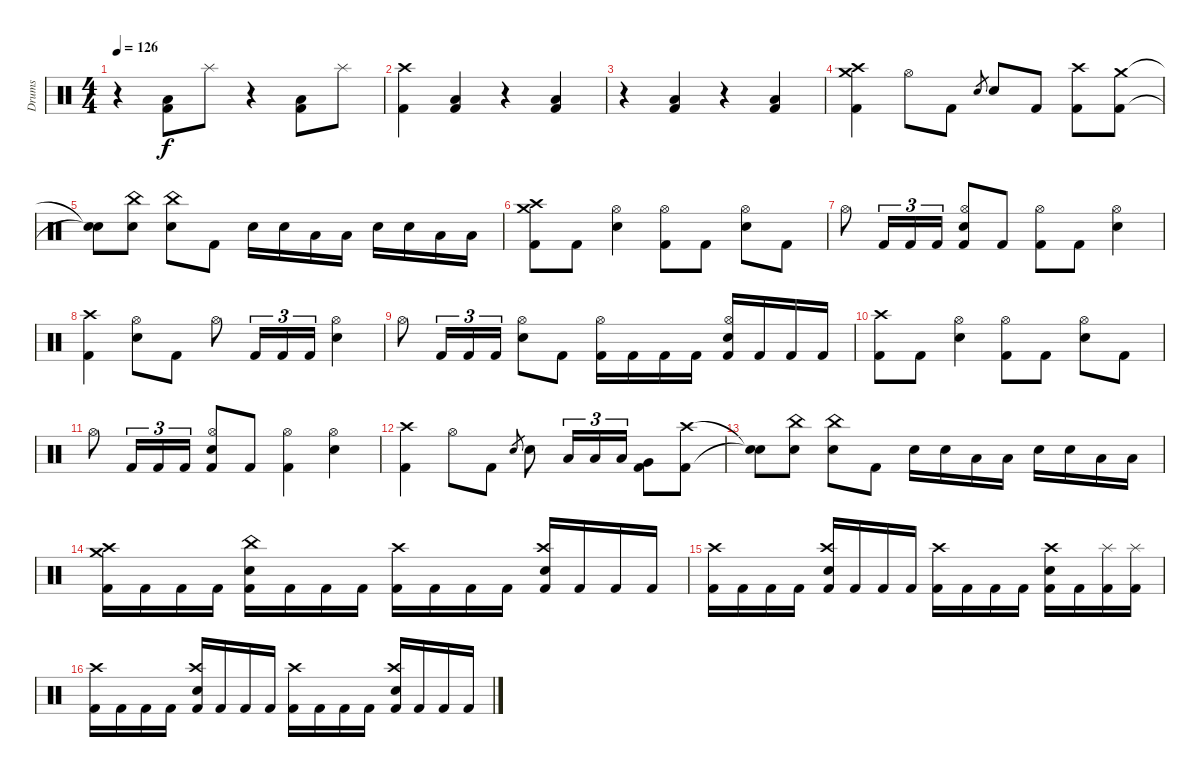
\track ("Drums" "Drums") {instrument percussion}
\staff {score}
\articulation defaults
\ts (4 4)
\tempo 126
\clef neutral
\ks c
r.4{dy f} ("Low Floor Tom (hit)" "Kick (hit) 2").8 "Splash (hit)".8 r.4 ("Low Floor Tom (hit)" "Kick (hit) 2").8 "Splash (hit)".8 |
("Crash high (hit)" "Kick (hit) 2").4 ("Low Floor Tom (hit)" "Kick (hit) 2").4 r.4 ("Low Floor Tom (hit)" "Kick (hit) 2").4 |
r.4 ("Low Floor Tom (hit)" "Kick (hit) 2").4 r.4 ("Low Floor Tom (hit)" "Kick (hit) 2").4 |
("Crash high (hit)" "Crash medium (hit)" "Kick (hit) 2").4 "Hi-Hat (open)".8 "Kick (hit) 2".8 "Electric Snare (hit)".8{gr} "Electric Snare (hit)".8 "Kick (hit) 2".8 ("Crash high (hit)" "Kick (hit) 2").8 ("Crash medium (hit)" "Kick (hit) 2").8 |
("Snare (hit)"{t} "Snare (hit)"{t}).8 ("China (hit)" "Electric Snare (hit)").8 ("China (hit)" "Electric Snare (hit)").8 "Kick (hit) 2".8 "Electric Snare (hit)".16 "Electric Snare (hit)".16 "Low Tom (hit)".16 "Low Tom (hit)".16 "Electric Snare (hit)".16 "Electric Snare (hit)".16 "Low Tom (hit)".16 "Low Tom (hit)".16 |
("Crash high (hit)" "Crash medium (hit)" "Kick (hit) 2").8 "Kick (hit) 2".8 ("Hi-Hat (open)" "Electric Snare (hit)").4 ("Hi-Hat (open)" "Kick (hit) 2").8 "Kick (hit) 2".8 ("Hi-Hat (open)" "Electric Snare (hit)").8 "Kick (hit) 2".8 |
"Hi-Hat (open)".8 "Kick (hit) 2".16{tu (3 2)} "Kick (hit) 2".16{tu (3 2)} "Kick (hit) 2".16{tu (3 2)} ("Hi-Hat (open)" "Electric Snare (hit)" "Kick (hit) 2").8 "Kick (hit) 2".8 ("Hi-Hat (open)" "Kick (hit) 2").8 "Kick (hit) 2".8 ("Hi-Hat (open)" "Electric Snare (hit)").4 |
("Crash high (hit)" "Kick (hit) 2").4 ("Hi-Hat (open)" "Electric Snare (hit)").8 "Kick (hit) 2".8 "Hi-Hat (open)".8 "Kick (hit) 2".16{tu (3 2)} "Kick (hit) 2".16{tu (3 2)} "Kick (hit) 2".16{tu (3 2)} ("Hi-Hat (open)" "Electric Snare (hit)").4 |
"Hi-Hat (open)".8 "Kick (hit) 2".16{tu (3 2)} "Kick (hit) 2".16{tu (3 2)} "Kick (hit) 2".16{tu (3 2)} ("Hi-Hat (open)" "Electric Snare (hit)").8 "Kick (hit) 2".8 ("Hi-Hat (open)" "Kick (hit) 2").16 "Kick (hit) 2".16 "Kick (hit) 2".16 "Kick (hit) 2".16 ("Hi-Hat (open)" "Electric Snare (hit)" "Kick (hit) 2").16 "Kick (hit) 2".16 "Kick (hit) 2".16 "Kick (hit) 2".16 |
("Crash high (hit)" "Kick (hit) 2").8 "Kick (hit) 2".8 ("Hi-Hat (open)" "Electric Snare (hit)").4 ("Hi-Hat (open)" "Kick (hit) 2").8 "Kick (hit) 2".8 ("Hi-Hat (open)" "Electric Snare (hit)").8 "Kick (hit) 2".8 |
"Hi-Hat (open)".8 "Kick (hit) 2".16{tu (3 2)} "Kick (hit) 2".16{tu (3 2)} "Kick (hit) 2".16{tu (3 2)} ("Hi-Hat (open)" "Electric Snare (hit)" "Kick (hit) 2").8 "Kick (hit) 2".8 ("Hi-Hat (open)" "Kick (hit) 2").4 ("Hi-Hat (open)" "Electric Snare (hit)").4 |
("Crash high (hit)" "Kick (hit) 2").4 "Hi-Hat (open)".8 "Kick (hit) 2".8 "Electric Snare (hit)".8{gr} "Electric Snare (hit)".8 "Low Tom (hit)".16{tu (3 2)} "Low Tom (hit)".16{tu (3 2)} "Low Tom (hit)".16{tu (3 2)} ("Very Low Tom (hit)" "Kick (hit) 2").8 ("Crash high (hit)" "Kick (hit) 2").8 |
("Snare (hit)"{t} "Snare (hit)"{t}).8 ("China (hit)" "Electric Snare (hit)").8 ("China (hit)" "Electric Snare (hit)").8 "Kick (hit) 2".8 "Electric Snare (hit)".16 "Electric Snare (hit)".16 "Low Tom (hit)".16 "Low Tom (hit)".16 "Electric Snare (hit)".16 "Electric Snare (hit)".16 "Low Tom (hit)".16 "Low Tom (hit)".16 |
("Crash high (hit)" "Crash medium (hit)" "Kick (hit) 2").16 "Kick (hit) 2".16 "Kick (hit) 2".16 "Kick (hit) 2".16 ("China (hit)" "Electric Snare (hit)" "Kick (hit) 2").16 "Kick (hit) 2".16 "Kick (hit) 2".16 "Kick (hit) 2".16 ("Crash high (hit)" "Kick (hit) 2").16 "Kick (hit) 2".16 "Kick (hit) 2".16 "Kick (hit) 2".16 ("Crash high (hit)" "Electric Snare (hit)" "Kick (hit) 2").16 "Kick (hit) 2".16 "Kick (hit) 2".16 "Kick (hit) 2".16 |
("Crash high (hit)" "Kick (hit) 2").16 "Kick (hit) 2".16 "Kick (hit) 2".16 "Kick (hit) 2".16 ("Crash high (hit)" "Electric Snare (hit)" "Kick (hit) 2").16 "Kick (hit) 2".16 "Kick (hit) 2".16 "Kick (hit) 2".16 ("Crash high (hit)" "Kick (hit) 2").16 "Kick (hit) 2".16 "Kick (hit) 2".16 "Kick (hit) 2".16 ("Crash high (hit)" "Electric Snare (hit)" "Kick (hit) 2").16 "Kick (hit) 2".16 ("Splash (hit)" "Kick (hit) 2").16 ("Splash (hit)" "Kick (hit) 2").16 |
("Crash high (hit)" "Kick (hit) 2").16 "Kick (hit) 2".16 "Kick (hit) 2".16 "Kick (hit) 2".16 ("Crash high (hit)" "Electric Snare (hit)" "Kick (hit) 2").16 "Kick (hit) 2".16 "Kick (hit) 2".16 "Kick (hit) 2".16 ("Crash high (hit)" "Kick (hit) 2").16 "Kick (hit) 2".16 "Kick (hit) 2".16 "Kick (hit) 2".16 ("Crash high (hit)" "Electric Snare (hit)" "Kick (hit) 2").16 "Kick (hit) 2".16 "Kick (hit) 2".16 "Kick (hit) 2".16
